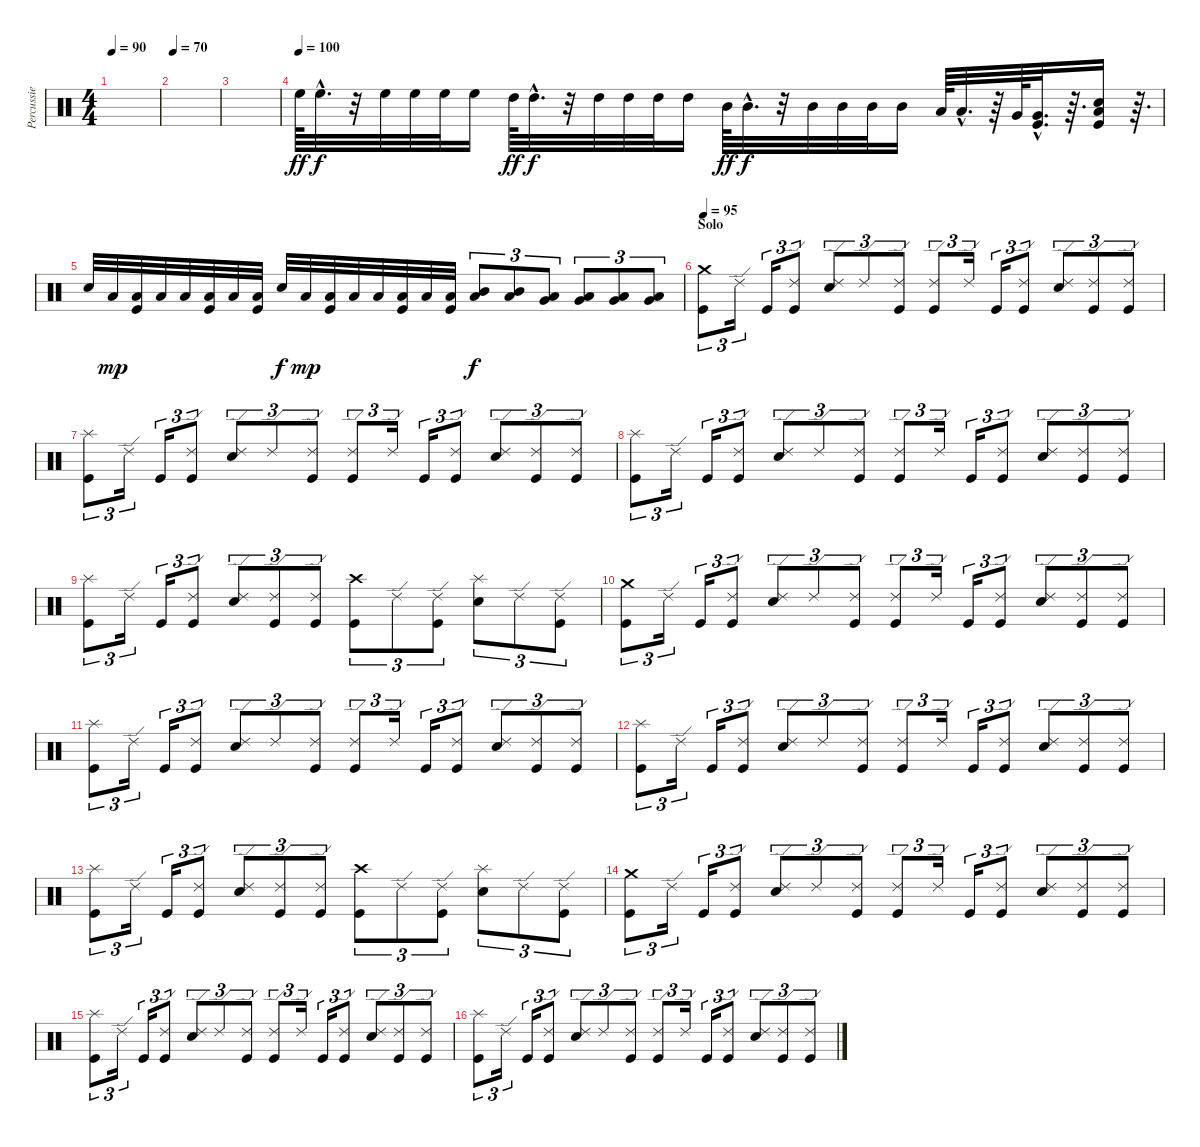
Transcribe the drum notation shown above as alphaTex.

\track ("Percussie" "Percussie") {instrument percussion}
\staff {score}
\articulation defaults
\ts (4 4)
\tempo 90
\clef neutral
\ks c
|
\tempo 70
|
|
\tempo (100)
"High Floor Tom (hit)".64{dy ff volume 13} "High Floor Tom (hit)"{hac}.32{d dy f} r.32 "High Floor Tom (hit)".32 "High Floor Tom (hit)".32 "High Floor Tom (hit)".32 "High Floor Tom (hit)".16 "High Tom (hit)".64{dy ff} "High Tom (hit)"{hac}.32{d dy f} r.32 "High Tom (hit)".32 "High Tom (hit)".32 "High Tom (hit)".32 "High Tom (hit)".16 "Mid Tom (hit)".64{dy ff} "Mid Tom (hit)"{hac}.32{d dy f} r.32 "Mid Tom (hit)".32 "Mid Tom (hit)".32 "Mid Tom (hit)".32 "Mid Tom (hit)".16 "Low Tom (hit)".64 "Low Tom (hit)"{hac}.32{d} r.64 "Very Low Tom (hit)".64 ("Kick (hit)"{hac} "Very Low Tom (hit)"{hac}).32{d} r.64{d} ("Kick (hit)" "Electric Snare (hit)" "Low Floor Tom (hit)").16 r.64{d} |
"Electric Snare (hit)"{tr (40 64)}.32 "Low Floor Tom (hit)".32{dy mp} ("Kick (hit)" "Low Floor Tom (hit)").32 "Low Floor Tom (hit)".32 "Low Floor Tom (hit)".32 ("Kick (hit)" "Low Floor Tom (hit)").32 "Low Floor Tom (hit)".32 ("Kick (hit)" "Low Floor Tom (hit)").32 "Electric Snare (hit)"{tr (40 64)}.32{dy f} "Low Floor Tom (hit)".32{dy mp} ("Kick (hit)" "Low Floor Tom (hit)").32 "Low Floor Tom (hit)".32 "Low Floor Tom (hit)".32 ("Kick (hit)" "Low Floor Tom (hit)").32 "Low Floor Tom (hit)".32 ("Kick (hit)" "Low Floor Tom (hit)").32 ("Mid Tom (hit)" "Low Tom (hit)").8{tu (3 2) dy f} ("Mid Tom (hit)" "Low Tom (hit)").8{tu (3 2)} ("Low Tom (hit)" "Very Low Tom (hit)").8{tu (3 2)} ("Very Low Tom (hit)" "Low Floor Tom (hit)").8{tu (3 2)} ("Very Low Tom (hit)" "Low Floor Tom (hit)").8{tu (3 2)} ("Very Low Tom (hit)" "Low Floor Tom (hit)").8{tu (3 2)} |
\section ("" "Solo")
\tempo 95
("Crash medium (hit)" "Kick (hit)").8{tu (3 2)} "Ride (edge) 2".16{tu (3 2)} "Kick (hit)".16{tu (3 2)} ("Ride (edge) 2" "Kick (hit)").8{tu (3 2)} ("Ride (edge) 2" "Electric Snare (hit)").8{tu (3 2)} "Ride (edge) 2".8{tu (3 2)} ("Ride (edge) 2" "Kick (hit)").8{tu (3 2)} ("Ride (edge) 2" "Kick (hit)").8{tu (3 2)} "Ride (edge) 2".16{tu (3 2)} "Kick (hit)".16{tu (3 2)} ("Ride (edge) 2" "Kick (hit)").8{tu (3 2)} ("Ride (edge) 2" "Electric Snare (hit)").8{tu (3 2)} ("Ride (edge) 2" "Kick (hit)").8{tu (3 2)} ("Ride (edge) 2" "Kick (hit)").8{tu (3 2)} |
("Splash (hit)" "Kick (hit)").8{tu (3 2)} "Ride (edge) 2".16{tu (3 2)} "Kick (hit)".16{tu (3 2)} ("Ride (edge) 2" "Kick (hit)").8{tu (3 2)} ("Ride (edge) 2" "Electric Snare (hit)").8{tu (3 2)} "Ride (edge) 2".8{tu (3 2)} ("Ride (edge) 2" "Kick (hit)").8{tu (3 2)} ("Ride (edge) 2" "Kick (hit)").8{tu (3 2)} "Ride (edge) 2".16{tu (3 2)} "Kick (hit)".16{tu (3 2)} ("Ride (edge) 2" "Kick (hit)").8{tu (3 2)} ("Ride (edge) 2" "Electric Snare (hit)").8{tu (3 2)} ("Ride (edge) 2" "Kick (hit)").8{tu (3 2)} ("Ride (edge) 2" "Kick (hit)").8{tu (3 2)} |
("Splash (hit)" "Kick (hit)").8{tu (3 2)} "Ride (edge) 2".16{tu (3 2)} "Kick (hit)".16{tu (3 2)} ("Ride (edge) 2" "Kick (hit)").8{tu (3 2)} ("Ride (edge) 2" "Electric Snare (hit)").8{tu (3 2)} "Ride (edge) 2".8{tu (3 2)} ("Ride (edge) 2" "Kick (hit)").8{tu (3 2)} ("Ride (edge) 2" "Kick (hit)").8{tu (3 2)} "Ride (edge) 2".16{tu (3 2)} "Kick (hit)".16{tu (3 2)} ("Ride (edge) 2" "Kick (hit)").8{tu (3 2)} ("Ride (edge) 2" "Electric Snare (hit)").8{tu (3 2)} ("Ride (edge) 2" "Kick (hit)").8{tu (3 2)} ("Ride (edge) 2" "Kick (hit)").8{tu (3 2)} |
("Splash (hit)" "Kick (hit)").8{tu (3 2)} "Ride (edge) 2".16{tu (3 2)} "Kick (hit)".16{tu (3 2)} ("Ride (edge) 2" "Kick (hit)").8{tu (3 2)} ("Ride (edge) 2" "Electric Snare (hit)").8{tu (3 2)} ("Ride (edge) 2" "Kick (hit)").8{tu (3 2)} ("Ride (edge) 2" "Kick (hit)").8{tu (3 2)} ("Crash high (hit)" "Kick (hit)").8{tu (3 2)} "Ride (edge) 2".8{tu (3 2)} ("Ride (edge) 2" "Kick (hit)").8{tu (3 2)} ("Splash (hit)" "Electric Snare (hit)").8{tu (3 2)} "Ride (edge) 2".8{tu (3 2)} ("Ride (edge) 2" "Kick (hit)").8{tu (3 2)} |
("Crash medium (hit)" "Kick (hit)").8{tu (3 2)} "Ride (edge) 2".16{tu (3 2)} "Kick (hit)".16{tu (3 2)} ("Ride (edge) 2" "Kick (hit)").8{tu (3 2)} ("Ride (edge) 2" "Electric Snare (hit)").8{tu (3 2)} "Ride (edge) 2".8{tu (3 2)} ("Ride (edge) 2" "Kick (hit)").8{tu (3 2)} ("Ride (edge) 2" "Kick (hit)").8{tu (3 2)} "Ride (edge) 2".16{tu (3 2)} "Kick (hit)".16{tu (3 2)} ("Ride (edge) 2" "Kick (hit)").8{tu (3 2)} ("Ride (edge) 2" "Electric Snare (hit)").8{tu (3 2)} ("Ride (edge) 2" "Kick (hit)").8{tu (3 2)} ("Ride (edge) 2" "Kick (hit)").8{tu (3 2)} |
("Splash (hit)" "Kick (hit)").8{tu (3 2)} "Ride (edge) 2".16{tu (3 2)} "Kick (hit)".16{tu (3 2)} ("Ride (edge) 2" "Kick (hit)").8{tu (3 2)} ("Ride (edge) 2" "Electric Snare (hit)").8{tu (3 2)} "Ride (edge) 2".8{tu (3 2)} ("Ride (edge) 2" "Kick (hit)").8{tu (3 2)} ("Ride (edge) 2" "Kick (hit)").8{tu (3 2)} "Ride (edge) 2".16{tu (3 2)} "Kick (hit)".16{tu (3 2)} ("Ride (edge) 2" "Kick (hit)").8{tu (3 2)} ("Ride (edge) 2" "Electric Snare (hit)").8{tu (3 2)} ("Ride (edge) 2" "Kick (hit)").8{tu (3 2)} ("Ride (edge) 2" "Kick (hit)").8{tu (3 2)} |
("Splash (hit)" "Kick (hit)").8{tu (3 2)} "Ride (edge) 2".16{tu (3 2)} "Kick (hit)".16{tu (3 2)} ("Ride (edge) 2" "Kick (hit)").8{tu (3 2)} ("Ride (edge) 2" "Electric Snare (hit)").8{tu (3 2)} "Ride (edge) 2".8{tu (3 2)} ("Ride (edge) 2" "Kick (hit)").8{tu (3 2)} ("Ride (edge) 2" "Kick (hit)").8{tu (3 2)} "Ride (edge) 2".16{tu (3 2)} "Kick (hit)".16{tu (3 2)} ("Ride (edge) 2" "Kick (hit)").8{tu (3 2)} ("Ride (edge) 2" "Electric Snare (hit)").8{tu (3 2)} ("Ride (edge) 2" "Kick (hit)").8{tu (3 2)} ("Ride (edge) 2" "Kick (hit)").8{tu (3 2)} |
("Splash (hit)" "Kick (hit)").8{tu (3 2)} "Ride (edge) 2".16{tu (3 2)} "Kick (hit)".16{tu (3 2)} ("Ride (edge) 2" "Kick (hit)").8{tu (3 2)} ("Ride (edge) 2" "Electric Snare (hit)").8{tu (3 2)} ("Ride (edge) 2" "Kick (hit)").8{tu (3 2)} ("Ride (edge) 2" "Kick (hit)").8{tu (3 2)} ("Crash high (hit)" "Kick (hit)").8{tu (3 2)} "Ride (edge) 2".8{tu (3 2)} ("Ride (edge) 2" "Kick (hit)").8{tu (3 2)} ("Splash (hit)" "Electric Snare (hit)").8{tu (3 2)} "Ride (edge) 2".8{tu (3 2)} ("Ride (edge) 2" "Kick (hit)").8{tu (3 2)} |
("Crash medium (hit)" "Kick (hit)").8{tu (3 2)} "Ride (edge) 2".16{tu (3 2)} "Kick (hit)".16{tu (3 2)} ("Ride (edge) 2" "Kick (hit)").8{tu (3 2)} ("Ride (edge) 2" "Electric Snare (hit)").8{tu (3 2)} "Ride (edge) 2".8{tu (3 2)} ("Ride (edge) 2" "Kick (hit)").8{tu (3 2)} ("Ride (edge) 2" "Kick (hit)").8{tu (3 2)} "Ride (edge) 2".16{tu (3 2)} "Kick (hit)".16{tu (3 2)} ("Ride (edge) 2" "Kick (hit)").8{tu (3 2)} ("Ride (edge) 2" "Electric Snare (hit)").8{tu (3 2)} ("Ride (edge) 2" "Kick (hit)").8{tu (3 2)} ("Ride (edge) 2" "Kick (hit)").8{tu (3 2)} |
("Splash (hit)" "Kick (hit)").8{tu (3 2)} "Ride (edge) 2".16{tu (3 2)} "Kick (hit)".16{tu (3 2)} ("Ride (edge) 2" "Kick (hit)").8{tu (3 2)} ("Ride (edge) 2" "Electric Snare (hit)").8{tu (3 2)} "Ride (edge) 2".8{tu (3 2)} ("Ride (edge) 2" "Kick (hit)").8{tu (3 2)} ("Ride (edge) 2" "Kick (hit)").8{tu (3 2)} "Ride (edge) 2".16{tu (3 2)} "Kick (hit)".16{tu (3 2)} ("Ride (edge) 2" "Kick (hit)").8{tu (3 2)} ("Ride (edge) 2" "Electric Snare (hit)").8{tu (3 2)} ("Ride (edge) 2" "Kick (hit)").8{tu (3 2)} ("Ride (edge) 2" "Kick (hit)").8{tu (3 2)} |
("Splash (hit)" "Kick (hit)").8{tu (3 2)} "Ride (edge) 2".16{tu (3 2)} "Kick (hit)".16{tu (3 2)} ("Ride (edge) 2" "Kick (hit)").8{tu (3 2)} ("Ride (edge) 2" "Electric Snare (hit)").8{tu (3 2)} "Ride (edge) 2".8{tu (3 2)} ("Ride (edge) 2" "Kick (hit)").8{tu (3 2)} ("Ride (edge) 2" "Kick (hit)").8{tu (3 2)} "Ride (edge) 2".16{tu (3 2)} "Kick (hit)".16{tu (3 2)} ("Ride (edge) 2" "Kick (hit)").8{tu (3 2)} ("Ride (edge) 2" "Electric Snare (hit)").8{tu (3 2)} ("Ride (edge) 2" "Kick (hit)").8{tu (3 2)} ("Ride (edge) 2" "Kick (hit)").8{tu (3 2)}
